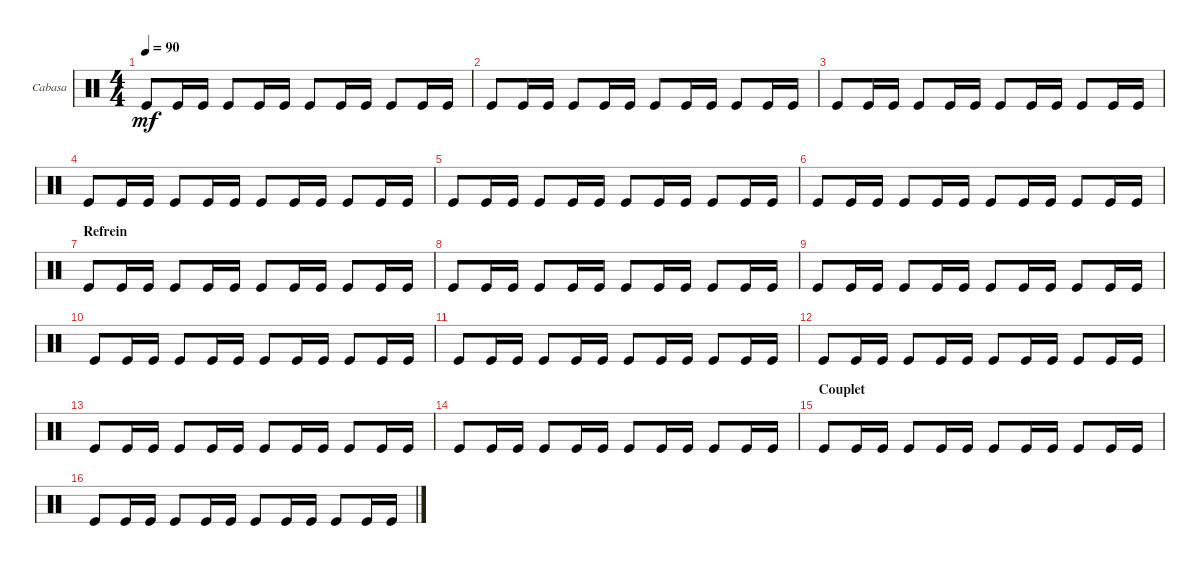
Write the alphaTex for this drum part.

\defaultSystemsLayout 4
\bracketExtendMode groupsimilarinstruments
\firstSystemTrackNameOrientation horizontal
\otherSystemsTrackNameOrientation horizontal
\track ("Cabasa" "Cabasa") {instrument percussion}
\staff {score}
\articulation defaults
\ts (4 4)
\tempo 90
\clef neutral
\scale
0.333333
\ks c "Kick (hit)".8{dy mf} "Kick (hit)".16 "Kick (hit)".16 "Kick (hit)".8 "Kick (hit)".16 "Kick (hit)".16 "Kick (hit)".8 "Kick (hit)".16 "Kick (hit)".16 "Kick (hit)".8 "Kick (hit)".16 "Kick (hit)".16
|
\scale
0.333333 "Kick (hit)".8 "Kick (hit)".16 "Kick (hit)".16 "Kick (hit)".8 "Kick (hit)".16 "Kick (hit)".16 "Kick (hit)".8 "Kick (hit)".16 "Kick (hit)".16 "Kick (hit)".8 "Kick (hit)".16 "Kick (hit)".16 |
\scale
0.333333 "Kick (hit)".8 "Kick (hit)".16 "Kick (hit)".16 "Kick (hit)".8 "Kick (hit)".16 "Kick (hit)".16 "Kick (hit)".8 "Kick (hit)".16 "Kick (hit)".16 "Kick (hit)".8 "Kick (hit)".16 "Kick (hit)".16 |
\scale
0.333333 "Kick (hit)".8 "Kick (hit)".16 "Kick (hit)".16 "Kick (hit)".8 "Kick (hit)".16 "Kick (hit)".16 "Kick (hit)".8 "Kick (hit)".16 "Kick (hit)".16 "Kick (hit)".8 "Kick (hit)".16 "Kick (hit)".16 |
\scale
0.333333 "Kick (hit)".8 "Kick (hit)".16 "Kick (hit)".16 "Kick (hit)".8 "Kick (hit)".16 "Kick (hit)".16 "Kick (hit)".8 "Kick (hit)".16 "Kick (hit)".16 "Kick (hit)".8 "Kick (hit)".16 "Kick (hit)".16 |
\scale
0.333333 "Kick (hit)".8 "Kick (hit)".16 "Kick (hit)".16 "Kick (hit)".8 "Kick (hit)".16 "Kick (hit)".16 "Kick (hit)".8 "Kick (hit)".16 "Kick (hit)".16 "Kick (hit)".8 "Kick (hit)".16 "Kick (hit)".16 |
\section ("" "Refrein")
\scale
0.333333 "Kick (hit)".8 "Kick (hit)".16 "Kick (hit)".16 "Kick (hit)".8 "Kick (hit)".16 "Kick (hit)".16 "Kick (hit)".8 "Kick (hit)".16 "Kick (hit)".16 "Kick (hit)".8 "Kick (hit)".16 "Kick (hit)".16 |
\scale
0.333333 "Kick (hit)".8 "Kick (hit)".16 "Kick (hit)".16 "Kick (hit)".8 "Kick (hit)".16 "Kick (hit)".16 "Kick (hit)".8 "Kick (hit)".16 "Kick (hit)".16 "Kick (hit)".8 "Kick (hit)".16 "Kick (hit)".16 |
\scale
0.333333 "Kick (hit)".8 "Kick (hit)".16 "Kick (hit)".16 "Kick (hit)".8 "Kick (hit)".16 "Kick (hit)".16 "Kick (hit)".8 "Kick (hit)".16 "Kick (hit)".16 "Kick (hit)".8 "Kick (hit)".16 "Kick (hit)".16 |
\scale
0.333333 "Kick (hit)".8 "Kick (hit)".16 "Kick (hit)".16 "Kick (hit)".8 "Kick (hit)".16 "Kick (hit)".16 "Kick (hit)".8 "Kick (hit)".16 "Kick (hit)".16 "Kick (hit)".8 "Kick (hit)".16 "Kick (hit)".16 |
\scale
0.333333 "Kick (hit)".8 "Kick (hit)".16 "Kick (hit)".16 "Kick (hit)".8 "Kick (hit)".16 "Kick (hit)".16 "Kick (hit)".8 "Kick (hit)".16 "Kick (hit)".16 "Kick (hit)".8 "Kick (hit)".16 "Kick (hit)".16 |
\scale
0.333333 "Kick (hit)".8 "Kick (hit)".16 "Kick (hit)".16 "Kick (hit)".8 "Kick (hit)".16 "Kick (hit)".16 "Kick (hit)".8 "Kick (hit)".16 "Kick (hit)".16 "Kick (hit)".8 "Kick (hit)".16 "Kick (hit)".16 |
\scale
0.333333 "Kick (hit)".8 "Kick (hit)".16 "Kick (hit)".16 "Kick (hit)".8 "Kick (hit)".16 "Kick (hit)".16 "Kick (hit)".8 "Kick (hit)".16 "Kick (hit)".16 "Kick (hit)".8 "Kick (hit)".16 "Kick (hit)".16 |
\scale
0.333333 "Kick (hit)".8 "Kick (hit)".16 "Kick (hit)".16 "Kick (hit)".8 "Kick (hit)".16 "Kick (hit)".16 "Kick (hit)".8 "Kick (hit)".16 "Kick (hit)".16 "Kick (hit)".8 "Kick (hit)".16 "Kick (hit)".16 |
\section ("" "Couplet")
\scale
0.333333 "Kick (hit)".8 "Kick (hit)".16 "Kick (hit)".16 "Kick (hit)".8 "Kick (hit)".16 "Kick (hit)".16 "Kick (hit)".8 "Kick (hit)".16 "Kick (hit)".16 "Kick (hit)".8 "Kick (hit)".16 "Kick (hit)".16 |
\scale
0.333333 "Kick (hit)".8 "Kick (hit)".16 "Kick (hit)".16 "Kick (hit)".8 "Kick (hit)".16 "Kick (hit)".16 "Kick (hit)".8 "Kick (hit)".16 "Kick (hit)".16 "Kick (hit)".8 "Kick (hit)".16 "Kick (hit)".16
